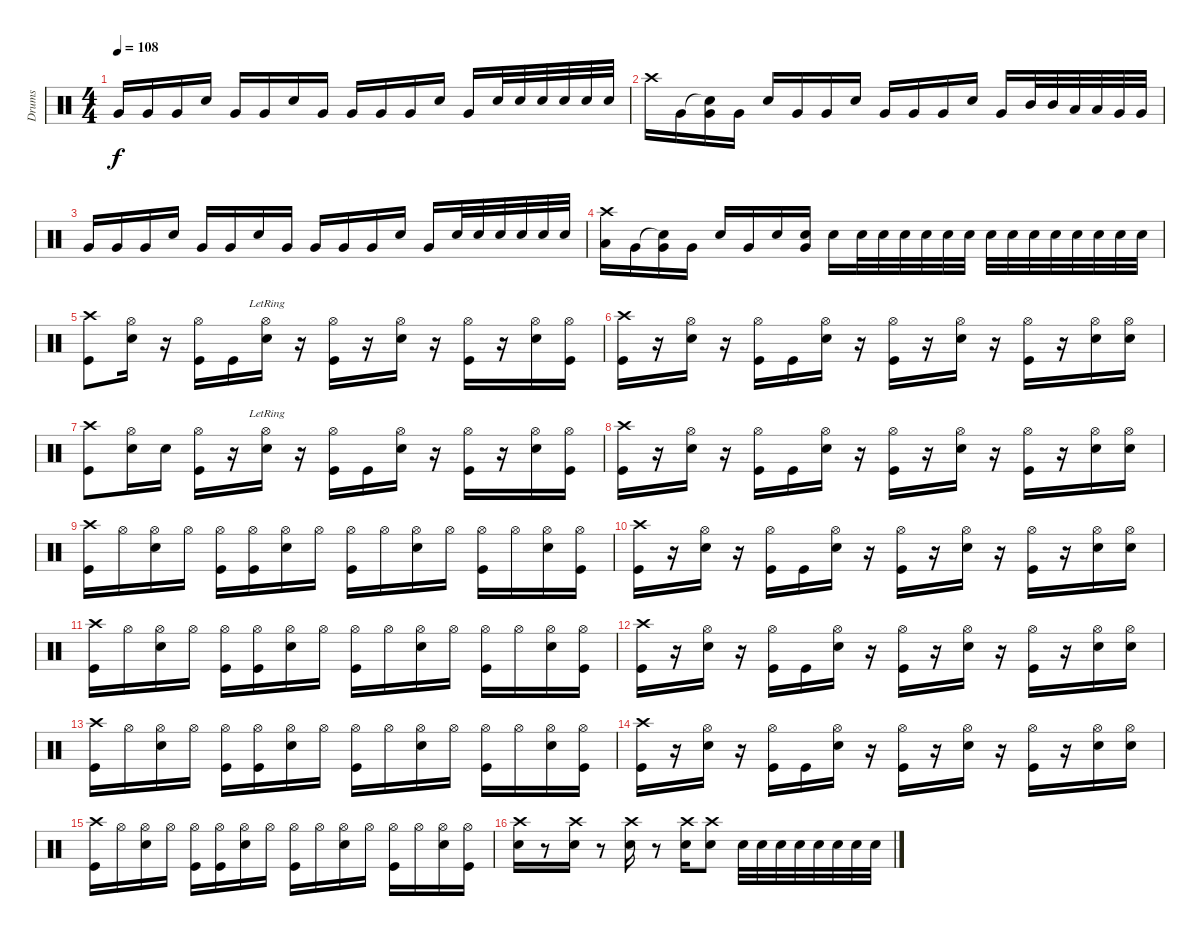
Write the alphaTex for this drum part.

\track ("Drums" "Drums") {instrument percussion}
\staff {score}
\articulation defaults
\ts (4 4)
\tempo 108
\clef neutral
\ks c "Very Low Tom (hit)".16{dy f} "Very Low Tom (hit)".16 "Very Low Tom (hit)".16 "Snare (hit) 2".16 "Very Low Tom (hit)".16 "Very Low Tom (hit)".16 "Snare (hit) 2".16 "Very Low Tom (hit)".16 "Very Low Tom (hit)".16 "Very Low Tom (hit)".16 "Very Low Tom (hit)".16 "Snare (hit) 2".16 "Very Low Tom (hit)".16 "Snare (hit) 2".32 "Snare (hit) 2".32 "Snare (hit) 2".32 "Snare (hit) 2".32 "Snare (hit) 2".32 "Snare (hit) 2".32
|
"Crash high (hit)".16 "Very Low Tom (hit)".16 ("Snare (hit)"{t} "Very Low Tom (hit)").16 "Very Low Tom (hit)".16 "Snare (hit) 2".16 "Very Low Tom (hit)".16 "Very Low Tom (hit)".16 "Snare (hit) 2".16 "Very Low Tom (hit)".16 "Very Low Tom (hit)".16 "Very Low Tom (hit)".16 "Snare (hit) 2".16 "Very Low Tom (hit)".16 "Mid Tom (hit)".32 "Mid Tom (hit)".32 "Low Tom (hit)".32 "Low Tom (hit)".32 "Very Low Tom (hit)".32 "Very Low Tom (hit)".32 |
"Very Low Tom (hit)".16 "Very Low Tom (hit)".16 "Very Low Tom (hit)".16 "Snare (hit) 2".16 "Very Low Tom (hit)".16 "Very Low Tom (hit)".16 "Snare (hit) 2".16 "Very Low Tom (hit)".16 "Very Low Tom (hit)".16 "Very Low Tom (hit)".16 "Very Low Tom (hit)".16 "Snare (hit) 2".16 "Very Low Tom (hit)".16 "Snare (hit) 2".32 "Snare (hit) 2".32 "Snare (hit) 2".32 "Snare (hit) 2".32 "Snare (hit) 2".32 "Snare (hit) 2".32 |
("Crash high (hit)" "Low Floor Tom (hit)").16 "Very Low Tom (hit)".16 ("Snare (hit)"{t} "Very Low Tom (hit)").16 "Very Low Tom (hit)".16 "Snare (hit) 2".16 "Very Low Tom (hit)".16 "Snare (hit) 2".16 ("Very Low Tom (hit)" "Snare (hit) 2").16 "Snare (hit) 2".16 "Snare (hit) 2".32 "Snare (hit) 2".32 "Snare (hit) 2".32 "Snare (hit) 2".32 "Snare (hit) 2".32 "Snare (hit) 2".32 "Snare (hit) 2".32 "Snare (hit) 2".32 "Snare (hit) 2".32 "Snare (hit) 2".32 "Snare (hit) 2".32 "Snare (hit) 2".32 "Snare (hit) 2".32 "Snare (hit) 2".32 |
("Crash high (hit)" "Kick (hit)").8 ("Hi-Hat (open)" "Snare (hit) 2").16 r.16 ("Hi-Hat (open)" "Kick (hit)").16 "Kick (hit)".16 ("Hi-Hat (open)"{lr} "Snare (hit) 2").16 r.16 ("Hi-Hat (open)" "Kick (hit)").16 r.16 ("Hi-Hat (open)" "Snare (hit) 2").16 r.16 ("Hi-Hat (open)" "Kick (hit)").16 r.16 ("Hi-Hat (open)" "Snare (hit) 2").16 ("Hi-Hat (open)" "Kick (hit)").16 |
("Crash high (hit)" "Kick (hit)").16 r.16 ("Hi-Hat (open)" "Snare (hit) 2").16 r.16 ("Hi-Hat (open)" "Kick (hit)").16 "Kick (hit)".16 ("Hi-Hat (open)" "Snare (hit) 2").16 r.16 ("Hi-Hat (open)" "Kick (hit)").16 r.16 ("Hi-Hat (open)" "Snare (hit) 2").16 r.16 ("Hi-Hat (open)" "Kick (hit)").16 r.16 ("Hi-Hat (open)" "Snare (hit) 2").16 ("Hi-Hat (open)" "Snare (hit) 2").16 |
("Crash high (hit)" "Kick (hit)").8 ("Hi-Hat (open)" "Snare (hit) 2").16 "Snare (hit) 2".16 ("Hi-Hat (open)" "Kick (hit)").16 r.16 ("Hi-Hat (open)"{lr} "Snare (hit) 2").16 r.16 ("Hi-Hat (open)" "Kick (hit)").16 "Kick (hit)".16 ("Hi-Hat (open)" "Snare (hit) 2").16 r.16 ("Hi-Hat (open)" "Kick (hit)").16 r.16 ("Hi-Hat (open)" "Snare (hit) 2").16 ("Hi-Hat (open)" "Kick (hit)").16 |
("Crash high (hit)" "Kick (hit)").16 r.16 ("Hi-Hat (open)" "Snare (hit) 2").16 r.16 ("Hi-Hat (open)" "Kick (hit)").16 "Kick (hit)".16 ("Hi-Hat (open)" "Snare (hit) 2").16 r.16 ("Hi-Hat (open)" "Kick (hit)").16 r.16 ("Hi-Hat (open)" "Snare (hit) 2").16 r.16 ("Hi-Hat (open)" "Kick (hit)").16 r.16 ("Hi-Hat (open)" "Snare (hit) 2").16 ("Hi-Hat (open)" "Snare (hit) 2").16 |
("Crash high (hit)" "Kick (hit)").16 "Hi-Hat (open)".16 ("Hi-Hat (open)" "Snare (hit) 2").16 "Hi-Hat (open)".16 ("Hi-Hat (open)" "Kick (hit)").16 ("Hi-Hat (open)" "Kick (hit)").16 ("Hi-Hat (open)" "Snare (hit) 2").16 "Hi-Hat (open)".16 ("Hi-Hat (open)" "Kick (hit)").16 "Hi-Hat (open)".16 ("Hi-Hat (open)" "Snare (hit) 2").16 "Hi-Hat (open)".16 ("Hi-Hat (open)" "Kick (hit)").16 "Hi-Hat (open)".16 ("Hi-Hat (open)" "Snare (hit) 2").16 ("Hi-Hat (open)" "Kick (hit)").16 |
("Crash high (hit)" "Kick (hit)").16 r.16 ("Hi-Hat (open)" "Snare (hit) 2").16 r.16 ("Hi-Hat (open)" "Kick (hit)").16 "Kick (hit)".16 ("Hi-Hat (open)" "Snare (hit) 2").16 r.16 ("Hi-Hat (open)" "Kick (hit)").16 r.16 ("Hi-Hat (open)" "Snare (hit) 2").16 r.16 ("Hi-Hat (open)" "Kick (hit)").16 r.16 ("Hi-Hat (open)" "Snare (hit) 2").16 ("Hi-Hat (open)" "Snare (hit) 2").16 |
("Crash high (hit)" "Kick (hit)").16 "Hi-Hat (open)".16 ("Hi-Hat (open)" "Snare (hit) 2").16 "Hi-Hat (open)".16 ("Hi-Hat (open)" "Kick (hit)").16 ("Hi-Hat (open)" "Kick (hit)").16 ("Hi-Hat (open)" "Snare (hit) 2").16 "Hi-Hat (open)".16 ("Hi-Hat (open)" "Kick (hit)").16 "Hi-Hat (open)".16 ("Hi-Hat (open)" "Snare (hit) 2").16 "Hi-Hat (open)".16 ("Hi-Hat (open)" "Kick (hit)").16 "Hi-Hat (open)".16 ("Hi-Hat (open)" "Snare (hit) 2").16 ("Hi-Hat (open)" "Kick (hit)").16 |
("Crash high (hit)" "Kick (hit)").16 r.16 ("Hi-Hat (open)" "Snare (hit) 2").16 r.16 ("Hi-Hat (open)" "Kick (hit)").16 "Kick (hit)".16 ("Hi-Hat (open)" "Snare (hit) 2").16 r.16 ("Hi-Hat (open)" "Kick (hit)").16 r.16 ("Hi-Hat (open)" "Snare (hit) 2").16 r.16 ("Hi-Hat (open)" "Kick (hit)").16 r.16 ("Hi-Hat (open)" "Snare (hit) 2").16 ("Hi-Hat (open)" "Snare (hit) 2").16 |
("Crash high (hit)" "Kick (hit)").16 "Hi-Hat (open)".16 ("Hi-Hat (open)" "Snare (hit) 2").16 "Hi-Hat (open)".16 ("Hi-Hat (open)" "Kick (hit)").16 ("Hi-Hat (open)" "Kick (hit)").16 ("Hi-Hat (open)" "Snare (hit) 2").16 "Hi-Hat (open)".16 ("Hi-Hat (open)" "Kick (hit)").16 "Hi-Hat (open)".16 ("Hi-Hat (open)" "Snare (hit) 2").16 "Hi-Hat (open)".16 ("Hi-Hat (open)" "Kick (hit)").16 "Hi-Hat (open)".16 ("Hi-Hat (open)" "Snare (hit) 2").16 ("Hi-Hat (open)" "Kick (hit)").16 |
("Crash high (hit)" "Kick (hit)").16 r.16 ("Hi-Hat (open)" "Snare (hit) 2").16 r.16 ("Hi-Hat (open)" "Kick (hit)").16 "Kick (hit)".16 ("Hi-Hat (open)" "Snare (hit) 2").16 r.16 ("Hi-Hat (open)" "Kick (hit)").16 r.16 ("Hi-Hat (open)" "Snare (hit) 2").16 r.16 ("Hi-Hat (open)" "Kick (hit)").16 r.16 ("Hi-Hat (open)" "Snare (hit) 2").16 ("Hi-Hat (open)" "Snare (hit) 2").16 |
("Crash high (hit)" "Kick (hit)").16 "Hi-Hat (open)".16 ("Hi-Hat (open)" "Snare (hit) 2").16 "Hi-Hat (open)".16 ("Hi-Hat (open)" "Kick (hit)").16 ("Hi-Hat (open)" "Kick (hit)").16 ("Hi-Hat (open)" "Snare (hit) 2").16 "Hi-Hat (open)".16 ("Hi-Hat (open)" "Kick (hit)").16 "Hi-Hat (open)".16 ("Hi-Hat (open)" "Snare (hit) 2").16 "Hi-Hat (open)".16 ("Hi-Hat (open)" "Kick (hit)").16 "Hi-Hat (open)".16 ("Hi-Hat (open)" "Snare (hit) 2").16 ("Hi-Hat (open)" "Kick (hit)").16 |
("Crash high (hit)" "Snare (hit) 2").16 r.8 ("Crash high (hit)" "Snare (hit) 2").16 r.8 ("Crash high (hit)" "Snare (hit) 2").16 r.8 ("Crash high (hit)" "Snare (hit) 2").16 ("Crash high (hit)" "Snare (hit) 2").8 "Snare (hit) 2".32 "Snare (hit) 2".32 "Snare (hit) 2".32 "Snare (hit) 2".32 "Snare (hit) 2".32 "Snare (hit) 2".32 "Snare (hit) 2".32 "Snare (hit) 2".32
